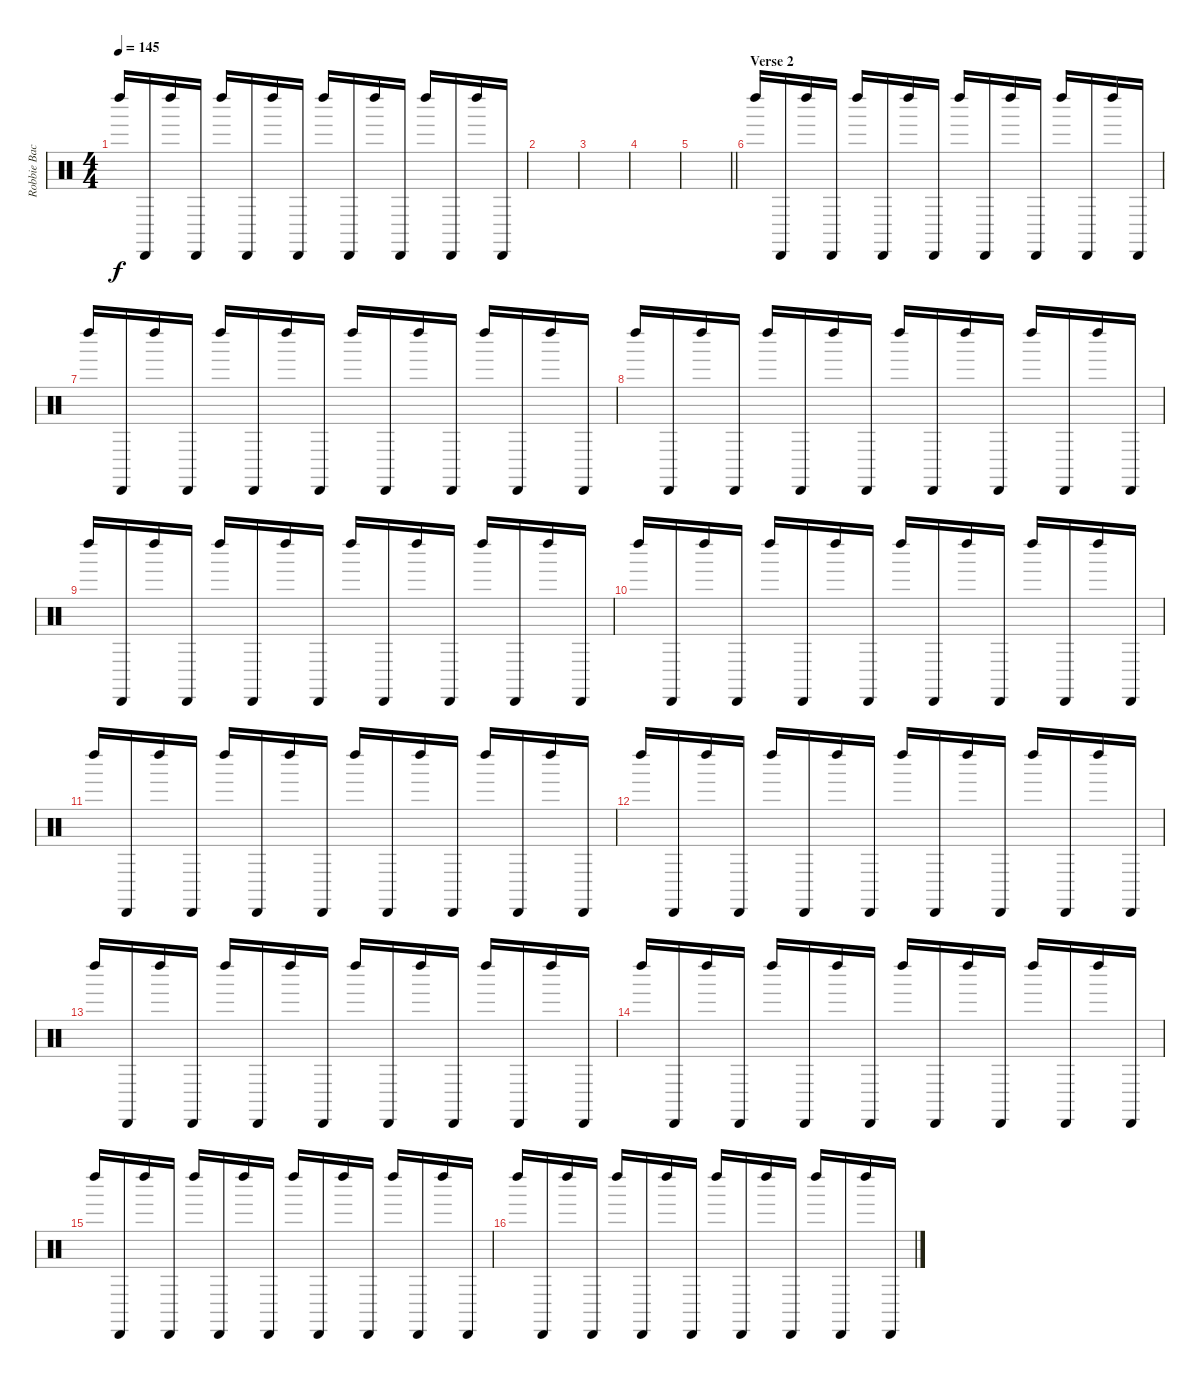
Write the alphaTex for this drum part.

\track ("Robbie Bachman 2" "Robbie Bac") {instrument percussion}
\staff {score}
\articulation defaults
\ts (4 4)
\tempo 145
\clef neutral
\ks c "Left Maraca (hit)".16{dy f} "Cabasa (hit)".16 "Left Maraca (hit)".16 "Cabasa (hit)".16 "Left Maraca (hit)".16 "Cabasa (hit)".16 "Left Maraca (hit)".16 "Cabasa (hit)".16 "Left Maraca (hit)".16 "Cabasa (hit)".16 "Left Maraca (hit)".16 "Cabasa (hit)".16 "Left Maraca (hit)".16 "Cabasa (hit)".16 "Left Maraca (hit)".16 "Cabasa (hit)".16
|
|
|
|
\barLineRight lightlight
|
\section ("" "Verse 2")
"Left Maraca (hit)".16 "Cabasa (hit)".16 "Left Maraca (hit)".16 "Cabasa (hit)".16 "Left Maraca (hit)".16 "Cabasa (hit)".16 "Left Maraca (hit)".16 "Cabasa (hit)".16 "Left Maraca (hit)".16 "Cabasa (hit)".16 "Left Maraca (hit)".16 "Cabasa (hit)".16 "Left Maraca (hit)".16 "Cabasa (hit)".16 "Left Maraca (hit)".16 "Cabasa (hit)".16 |
"Left Maraca (hit)".16 "Cabasa (hit)".16 "Left Maraca (hit)".16 "Cabasa (hit)".16 "Left Maraca (hit)".16 "Cabasa (hit)".16 "Left Maraca (hit)".16 "Cabasa (hit)".16 "Left Maraca (hit)".16 "Cabasa (hit)".16 "Left Maraca (hit)".16 "Cabasa (hit)".16 "Left Maraca (hit)".16 "Cabasa (hit)".16 "Left Maraca (hit)".16 "Cabasa (hit)".16 |
"Left Maraca (hit)".16 "Cabasa (hit)".16 "Left Maraca (hit)".16 "Cabasa (hit)".16 "Left Maraca (hit)".16 "Cabasa (hit)".16 "Left Maraca (hit)".16 "Cabasa (hit)".16 "Left Maraca (hit)".16 "Cabasa (hit)".16 "Left Maraca (hit)".16 "Cabasa (hit)".16 "Left Maraca (hit)".16 "Cabasa (hit)".16 "Left Maraca (hit)".16 "Cabasa (hit)".16 |
"Left Maraca (hit)".16 "Cabasa (hit)".16 "Left Maraca (hit)".16 "Cabasa (hit)".16 "Left Maraca (hit)".16 "Cabasa (hit)".16 "Left Maraca (hit)".16 "Cabasa (hit)".16 "Left Maraca (hit)".16 "Cabasa (hit)".16 "Left Maraca (hit)".16 "Cabasa (hit)".16 "Left Maraca (hit)".16 "Cabasa (hit)".16 "Left Maraca (hit)".16 "Cabasa (hit)".16 |
"Left Maraca (hit)".16 "Cabasa (hit)".16 "Left Maraca (hit)".16 "Cabasa (hit)".16 "Left Maraca (hit)".16 "Cabasa (hit)".16 "Left Maraca (hit)".16 "Cabasa (hit)".16 "Left Maraca (hit)".16 "Cabasa (hit)".16 "Left Maraca (hit)".16 "Cabasa (hit)".16 "Left Maraca (hit)".16 "Cabasa (hit)".16 "Left Maraca (hit)".16 "Cabasa (hit)".16 |
"Left Maraca (hit)".16 "Cabasa (hit)".16 "Left Maraca (hit)".16 "Cabasa (hit)".16 "Left Maraca (hit)".16 "Cabasa (hit)".16 "Left Maraca (hit)".16 "Cabasa (hit)".16 "Left Maraca (hit)".16 "Cabasa (hit)".16 "Left Maraca (hit)".16 "Cabasa (hit)".16 "Left Maraca (hit)".16 "Cabasa (hit)".16 "Left Maraca (hit)".16 "Cabasa (hit)".16 |
"Left Maraca (hit)".16 "Cabasa (hit)".16 "Left Maraca (hit)".16 "Cabasa (hit)".16 "Left Maraca (hit)".16 "Cabasa (hit)".16 "Left Maraca (hit)".16 "Cabasa (hit)".16 "Left Maraca (hit)".16 "Cabasa (hit)".16 "Left Maraca (hit)".16 "Cabasa (hit)".16 "Left Maraca (hit)".16 "Cabasa (hit)".16 "Left Maraca (hit)".16 "Cabasa (hit)".16 |
"Left Maraca (hit)".16 "Cabasa (hit)".16 "Left Maraca (hit)".16 "Cabasa (hit)".16 "Left Maraca (hit)".16 "Cabasa (hit)".16 "Left Maraca (hit)".16 "Cabasa (hit)".16 "Left Maraca (hit)".16 "Cabasa (hit)".16 "Left Maraca (hit)".16 "Cabasa (hit)".16 "Left Maraca (hit)".16 "Cabasa (hit)".16 "Left Maraca (hit)".16 "Cabasa (hit)".16 |
"Left Maraca (hit)".16 "Cabasa (hit)".16 "Left Maraca (hit)".16 "Cabasa (hit)".16 "Left Maraca (hit)".16 "Cabasa (hit)".16 "Left Maraca (hit)".16 "Cabasa (hit)".16 "Left Maraca (hit)".16 "Cabasa (hit)".16 "Left Maraca (hit)".16 "Cabasa (hit)".16 "Left Maraca (hit)".16 "Cabasa (hit)".16 "Left Maraca (hit)".16 "Cabasa (hit)".16 |
"Left Maraca (hit)".16 "Cabasa (hit)".16 "Left Maraca (hit)".16 "Cabasa (hit)".16 "Left Maraca (hit)".16 "Cabasa (hit)".16 "Left Maraca (hit)".16 "Cabasa (hit)".16 "Left Maraca (hit)".16 "Cabasa (hit)".16 "Left Maraca (hit)".16 "Cabasa (hit)".16 "Left Maraca (hit)".16 "Cabasa (hit)".16 "Left Maraca (hit)".16 "Cabasa (hit)".16 |
"Left Maraca (hit)".16 "Cabasa (hit)".16 "Left Maraca (hit)".16 "Cabasa (hit)".16 "Left Maraca (hit)".16 "Cabasa (hit)".16 "Left Maraca (hit)".16 "Cabasa (hit)".16 "Left Maraca (hit)".16 "Cabasa (hit)".16 "Left Maraca (hit)".16 "Cabasa (hit)".16 "Left Maraca (hit)".16 "Cabasa (hit)".16 "Left Maraca (hit)".16 "Cabasa (hit)".16
